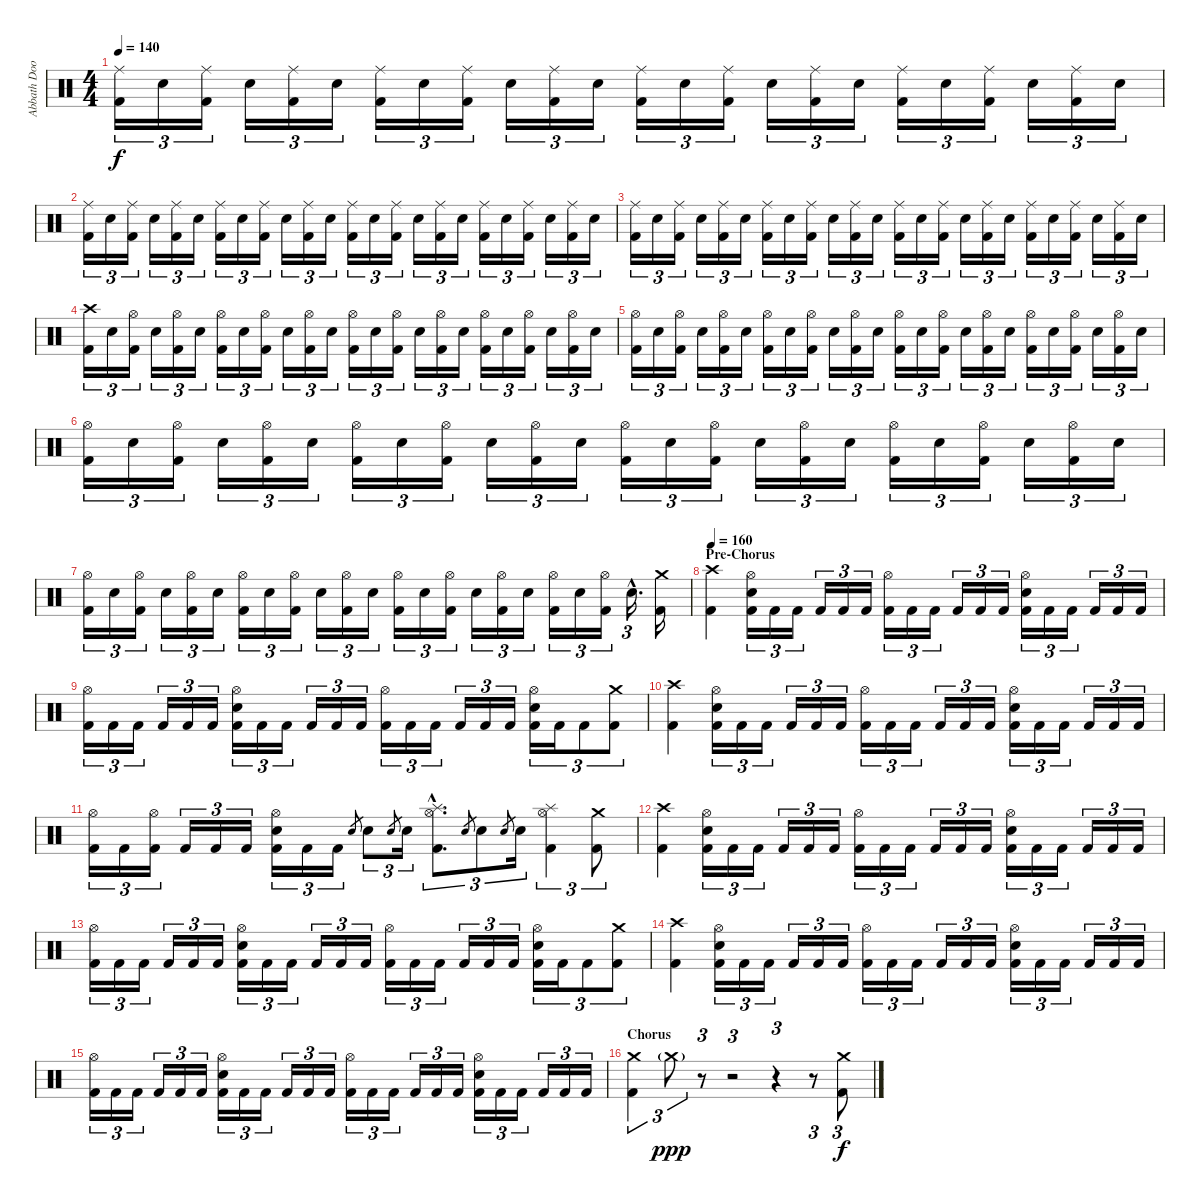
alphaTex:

\track ("Abbath Doom Occulta" "Abbath Doo") {instrument percussion}
\staff {score}
\articulation defaults
\ts (4 4)
\tempo 140
\clef neutral
\ks c
("Ride (middle)" "Kick (hit) 2").16{tu (3 2) dy f} "Electric Snare (hit)".16{tu (3 2)} ("Ride (middle)" "Kick (hit) 2").16{tu (3 2)} "Electric Snare (hit)".16{tu (3 2)} ("Ride (middle)" "Kick (hit) 2").16{tu (3 2)} "Electric Snare (hit)".16{tu (3 2)} ("Ride (middle)" "Kick (hit) 2").16{tu (3 2)} "Electric Snare (hit)".16{tu (3 2)} ("Ride (middle)" "Kick (hit) 2").16{tu (3 2)} "Electric Snare (hit)".16{tu (3 2)} ("Ride (middle)" "Kick (hit) 2").16{tu (3 2)} "Electric Snare (hit)".16{tu (3 2)} ("Ride (middle)" "Kick (hit) 2").16{tu (3 2)} "Electric Snare (hit)".16{tu (3 2)} ("Ride (middle)" "Kick (hit) 2").16{tu (3 2)} "Electric Snare (hit)".16{tu (3 2)} ("Ride (middle)" "Kick (hit) 2").16{tu (3 2)} "Electric Snare (hit)".16{tu (3 2)} ("Ride (middle)" "Kick (hit) 2").16{tu (3 2)} "Electric Snare (hit)".16{tu (3 2)} ("Ride (middle)" "Kick (hit) 2").16{tu (3 2)} "Electric Snare (hit)".16{tu (3 2)} ("Ride (middle)" "Kick (hit) 2").16{tu (3 2)} "Electric Snare (hit)".16{tu (3 2)} |
("Ride (middle)" "Kick (hit) 2").16{tu (3 2)} "Electric Snare (hit)".16{tu (3 2)} ("Ride (middle)" "Kick (hit) 2").16{tu (3 2)} "Electric Snare (hit)".16{tu (3 2)} ("Ride (middle)" "Kick (hit) 2").16{tu (3 2)} "Electric Snare (hit)".16{tu (3 2)} ("Ride (middle)" "Kick (hit) 2").16{tu (3 2)} "Electric Snare (hit)".16{tu (3 2)} ("Ride (middle)" "Kick (hit) 2").16{tu (3 2)} "Electric Snare (hit)".16{tu (3 2)} ("Ride (middle)" "Kick (hit) 2").16{tu (3 2)} "Electric Snare (hit)".16{tu (3 2)} ("Ride (middle)" "Kick (hit) 2").16{tu (3 2)} "Electric Snare (hit)".16{tu (3 2)} ("Ride (middle)" "Kick (hit) 2").16{tu (3 2)} "Electric Snare (hit)".16{tu (3 2)} ("Ride (middle)" "Kick (hit) 2").16{tu (3 2)} "Electric Snare (hit)".16{tu (3 2)} ("Ride (middle)" "Kick (hit) 2").16{tu (3 2)} "Electric Snare (hit)".16{tu (3 2)} ("Ride (middle)" "Kick (hit) 2").16{tu (3 2)} "Electric Snare (hit)".16{tu (3 2)} ("Ride (middle)" "Kick (hit) 2").16{tu (3 2)} "Electric Snare (hit)".16{tu (3 2)} |
("Ride (middle)" "Kick (hit) 2").16{tu (3 2)} "Electric Snare (hit)".16{tu (3 2)} ("Ride (middle)" "Kick (hit) 2").16{tu (3 2)} "Electric Snare (hit)".16{tu (3 2)} ("Ride (middle)" "Kick (hit) 2").16{tu (3 2)} "Electric Snare (hit)".16{tu (3 2)} ("Ride (middle)" "Kick (hit) 2").16{tu (3 2)} "Electric Snare (hit)".16{tu (3 2)} ("Ride (middle)" "Kick (hit) 2").16{tu (3 2)} "Electric Snare (hit)".16{tu (3 2)} ("Ride (middle)" "Kick (hit) 2").16{tu (3 2)} "Electric Snare (hit)".16{tu (3 2)} ("Ride (middle)" "Kick (hit) 2").16{tu (3 2)} "Electric Snare (hit)".16{tu (3 2)} ("Ride (middle)" "Kick (hit) 2").16{tu (3 2)} "Electric Snare (hit)".16{tu (3 2)} ("Ride (middle)" "Kick (hit) 2").16{tu (3 2)} "Electric Snare (hit)".16{tu (3 2)} ("Ride (middle)" "Kick (hit) 2").16{tu (3 2)} "Electric Snare (hit)".16{tu (3 2)} ("Ride (middle)" "Kick (hit) 2").16{tu (3 2)} "Electric Snare (hit)".16{tu (3 2)} ("Ride (middle)" "Kick (hit) 2").16{tu (3 2)} "Electric Snare (hit)".16{tu (3 2)} |
("Crash high (hit)" "Kick (hit) 2").16{tu (3 2)} "Electric Snare (hit)".16{tu (3 2)} ("Hi-Hat (open)" "Kick (hit) 2").16{tu (3 2)} "Electric Snare (hit)".16{tu (3 2)} ("Hi-Hat (open)" "Kick (hit) 2").16{tu (3 2)} "Electric Snare (hit)".16{tu (3 2)} ("Hi-Hat (open)" "Kick (hit) 2").16{tu (3 2)} "Electric Snare (hit)".16{tu (3 2)} ("Hi-Hat (open)" "Kick (hit) 2").16{tu (3 2)} "Electric Snare (hit)".16{tu (3 2)} ("Hi-Hat (open)" "Kick (hit) 2").16{tu (3 2)} "Electric Snare (hit)".16{tu (3 2)} ("Hi-Hat (open)" "Kick (hit) 2").16{tu (3 2)} "Electric Snare (hit)".16{tu (3 2)} ("Hi-Hat (open)" "Kick (hit) 2").16{tu (3 2)} "Electric Snare (hit)".16{tu (3 2)} ("Hi-Hat (open)" "Kick (hit) 2").16{tu (3 2)} "Electric Snare (hit)".16{tu (3 2)} ("Hi-Hat (open)" "Kick (hit) 2").16{tu (3 2)} "Electric Snare (hit)".16{tu (3 2)} ("Hi-Hat (open)" "Kick (hit) 2").16{tu (3 2)} "Electric Snare (hit)".16{tu (3 2)} ("Hi-Hat (open)" "Kick (hit) 2").16{tu (3 2)} "Electric Snare (hit)".16{tu (3 2)} |
("Hi-Hat (open)" "Kick (hit) 2").16{tu (3 2)} "Electric Snare (hit)".16{tu (3 2)} ("Hi-Hat (open)" "Kick (hit) 2").16{tu (3 2)} "Electric Snare (hit)".16{tu (3 2)} ("Hi-Hat (open)" "Kick (hit) 2").16{tu (3 2)} "Electric Snare (hit)".16{tu (3 2)} ("Hi-Hat (open)" "Kick (hit) 2").16{tu (3 2)} "Electric Snare (hit)".16{tu (3 2)} ("Hi-Hat (open)" "Kick (hit) 2").16{tu (3 2)} "Electric Snare (hit)".16{tu (3 2)} ("Hi-Hat (open)" "Kick (hit) 2").16{tu (3 2)} "Electric Snare (hit)".16{tu (3 2)} ("Hi-Hat (open)" "Kick (hit) 2").16{tu (3 2)} "Electric Snare (hit)".16{tu (3 2)} ("Hi-Hat (open)" "Kick (hit) 2").16{tu (3 2)} "Electric Snare (hit)".16{tu (3 2)} ("Hi-Hat (open)" "Kick (hit) 2").16{tu (3 2)} "Electric Snare (hit)".16{tu (3 2)} ("Hi-Hat (open)" "Kick (hit) 2").16{tu (3 2)} "Electric Snare (hit)".16{tu (3 2)} ("Hi-Hat (open)" "Kick (hit) 2").16{tu (3 2)} "Electric Snare (hit)".16{tu (3 2)} ("Hi-Hat (open)" "Kick (hit) 2").16{tu (3 2)} "Electric Snare (hit)".16{tu (3 2)} |
("Hi-Hat (open)" "Kick (hit) 2").16{tu (3 2)} "Electric Snare (hit)".16{tu (3 2)} ("Hi-Hat (open)" "Kick (hit) 2").16{tu (3 2)} "Electric Snare (hit)".16{tu (3 2)} ("Hi-Hat (open)" "Kick (hit) 2").16{tu (3 2)} "Electric Snare (hit)".16{tu (3 2)} ("Hi-Hat (open)" "Kick (hit) 2").16{tu (3 2)} "Electric Snare (hit)".16{tu (3 2)} ("Hi-Hat (open)" "Kick (hit) 2").16{tu (3 2)} "Electric Snare (hit)".16{tu (3 2)} ("Hi-Hat (open)" "Kick (hit) 2").16{tu (3 2)} "Electric Snare (hit)".16{tu (3 2)} ("Hi-Hat (open)" "Kick (hit) 2").16{tu (3 2)} "Electric Snare (hit)".16{tu (3 2)} ("Hi-Hat (open)" "Kick (hit) 2").16{tu (3 2)} "Electric Snare (hit)".16{tu (3 2)} ("Hi-Hat (open)" "Kick (hit) 2").16{tu (3 2)} "Electric Snare (hit)".16{tu (3 2)} ("Hi-Hat (open)" "Kick (hit) 2").16{tu (3 2)} "Electric Snare (hit)".16{tu (3 2)} ("Hi-Hat (open)" "Kick (hit) 2").16{tu (3 2)} "Electric Snare (hit)".16{tu (3 2)} ("Hi-Hat (open)" "Kick (hit) 2").16{tu (3 2)} "Electric Snare (hit)".16{tu (3 2)} |
("Hi-Hat (open)" "Kick (hit) 2").16{tu (3 2)} "Electric Snare (hit)".16{tu (3 2)} ("Hi-Hat (open)" "Kick (hit) 2").16{tu (3 2)} "Electric Snare (hit)".16{tu (3 2)} ("Hi-Hat (open)" "Kick (hit) 2").16{tu (3 2)} "Electric Snare (hit)".16{tu (3 2)} ("Hi-Hat (open)" "Kick (hit) 2").16{tu (3 2)} "Electric Snare (hit)".16{tu (3 2)} ("Hi-Hat (open)" "Kick (hit) 2").16{tu (3 2)} "Electric Snare (hit)".16{tu (3 2)} ("Hi-Hat (open)" "Kick (hit) 2").16{tu (3 2)} "Electric Snare (hit)".16{tu (3 2)} ("Hi-Hat (open)" "Kick (hit) 2").16{tu (3 2)} "Electric Snare (hit)".16{tu (3 2)} ("Hi-Hat (open)" "Kick (hit) 2").16{tu (3 2)} "Electric Snare (hit)".16{tu (3 2)} ("Hi-Hat (open)" "Kick (hit) 2").16{tu (3 2)} "Electric Snare (hit)".16{tu (3 2)} ("Hi-Hat (open)" "Kick (hit) 2").16{tu (3 2)} "Electric Snare (hit)".16{tu (3 2)} ("Hi-Hat (open)" "Kick (hit) 2").16{tu (3 2)} "Electric Snare (hit)"{hac}.16{d tu (3 2)} ("Crash medium (hit)" "Kick (hit) 2").16 |
\section ("" "Pre-Chorus")
\tempo 160
("Crash high (hit)" "Kick (hit) 2").4 ("Hi-Hat (open)" "Electric Snare (hit)" "Kick (hit) 2").16{tu (3 2)} "Kick (hit) 2".16{tu (3 2)} "Kick (hit) 2".16{tu (3 2)} "Kick (hit) 2".16{tu (3 2)} "Kick (hit) 2".16{tu (3 2)} "Kick (hit) 2".16{tu (3 2)} ("Hi-Hat (open)" "Kick (hit) 2").16{tu (3 2)} "Kick (hit) 2".16{tu (3 2)} "Kick (hit) 2".16{tu (3 2)} "Kick (hit) 2".16{tu (3 2)} "Kick (hit) 2".16{tu (3 2)} "Kick (hit) 2".16{tu (3 2)} ("Hi-Hat (open)" "Electric Snare (hit)" "Kick (hit) 2").16{tu (3 2)} "Kick (hit) 2".16{tu (3 2)} "Kick (hit) 2".16{tu (3 2)} "Kick (hit) 2".16{tu (3 2)} "Kick (hit) 2".16{tu (3 2)} "Kick (hit) 2".16{tu (3 2)} |
("Hi-Hat (open)" "Kick (hit) 2").16{tu (3 2)} "Kick (hit) 2".16{tu (3 2)} "Kick (hit) 2".16{tu (3 2)} "Kick (hit) 2".16{tu (3 2)} "Kick (hit) 2".16{tu (3 2)} "Kick (hit) 2".16{tu (3 2)} ("Hi-Hat (open)" "Electric Snare (hit)" "Kick (hit) 2").16{tu (3 2)} "Kick (hit) 2".16{tu (3 2)} "Kick (hit) 2".16{tu (3 2)} "Kick (hit) 2".16{tu (3 2)} "Kick (hit) 2".16{tu (3 2)} "Kick (hit) 2".16{tu (3 2)} ("Hi-Hat (open)" "Kick (hit) 2").16{tu (3 2)} "Kick (hit) 2".16{tu (3 2)} "Kick (hit) 2".16{tu (3 2)} "Kick (hit) 2".16{tu (3 2)} "Kick (hit) 2".16{tu (3 2)} "Kick (hit) 2".16{tu (3 2)} ("Hi-Hat (open)" "Electric Snare (hit)" "Kick (hit) 2").16{tu (3 2)} "Kick (hit) 2".16{tu (3 2)} "Kick (hit) 2".8{tu (3 2)} ("Crash medium (hit)" "Kick (hit) 2").8{tu (3 2)} |
("Crash high (hit)" "Kick (hit) 2").4 ("Hi-Hat (open)" "Electric Snare (hit)" "Kick (hit) 2").16{tu (3 2)} "Kick (hit) 2".16{tu (3 2)} "Kick (hit) 2".16{tu (3 2)} "Kick (hit) 2".16{tu (3 2)} "Kick (hit) 2".16{tu (3 2)} "Kick (hit) 2".16{tu (3 2)} ("Hi-Hat (open)" "Kick (hit) 2").16{tu (3 2)} "Kick (hit) 2".16{tu (3 2)} "Kick (hit) 2".16{tu (3 2)} "Kick (hit) 2".16{tu (3 2)} "Kick (hit) 2".16{tu (3 2)} "Kick (hit) 2".16{tu (3 2)} ("Hi-Hat (open)" "Electric Snare (hit)" "Kick (hit) 2").16{tu (3 2)} "Kick (hit) 2".16{tu (3 2)} "Kick (hit) 2".16{tu (3 2)} "Kick (hit) 2".16{tu (3 2)} "Kick (hit) 2".16{tu (3 2)} "Kick (hit) 2".16{tu (3 2)} |
("Hi-Hat (open)" "Kick (hit) 2").16{tu (3 2)} "Kick (hit) 2".16{tu (3 2)} ("Hi-Hat (open)" "Kick (hit) 2").16{tu (3 2)} "Kick (hit) 2".16{tu (3 2)} "Kick (hit) 2".16{tu (3 2)} "Kick (hit) 2".16{tu (3 2)} ("Hi-Hat (open)" "Electric Snare (hit)" "Kick (hit) 2").16{tu (3 2)} "Kick (hit) 2".16{tu (3 2)} "Kick (hit) 2".16{tu (3 2)} "Electric Snare (hit)".8{gr} "Electric Snare (hit)".8{tu (3 2)} "Electric Snare (hit)".8{gr} "Electric Snare (hit)".16{tu (3 2)} ("Splash (hit)"{hac} "Hi-Hat (open)"{hac} "Kick (hit) 2"{hac}).8{d tu (3 2)} "Electric Snare (hit)".8{gr} "Electric Snare (hit)".8{tu (3 2)} "Electric Snare (hit)".8{gr} "Electric Snare (hit)".16{tu (3 2)} ("Splash (hit)" "Hi-Hat (open)" "Kick (hit) 2").4{tu (3 2)} ("Crash medium (hit)" "Kick (hit) 2").8{tu (3 2)} |
("Crash high (hit)" "Kick (hit) 2").4 ("Hi-Hat (open)" "Electric Snare (hit)" "Kick (hit) 2").16{tu (3 2)} "Kick (hit) 2".16{tu (3 2)} "Kick (hit) 2".16{tu (3 2)} "Kick (hit) 2".16{tu (3 2)} "Kick (hit) 2".16{tu (3 2)} "Kick (hit) 2".16{tu (3 2)} ("Hi-Hat (open)" "Kick (hit) 2").16{tu (3 2)} "Kick (hit) 2".16{tu (3 2)} "Kick (hit) 2".16{tu (3 2)} "Kick (hit) 2".16{tu (3 2)} "Kick (hit) 2".16{tu (3 2)} "Kick (hit) 2".16{tu (3 2)} ("Hi-Hat (open)" "Electric Snare (hit)" "Kick (hit) 2").16{tu (3 2)} "Kick (hit) 2".16{tu (3 2)} "Kick (hit) 2".16{tu (3 2)} "Kick (hit) 2".16{tu (3 2)} "Kick (hit) 2".16{tu (3 2)} "Kick (hit) 2".16{tu (3 2)} |
("Hi-Hat (open)" "Kick (hit) 2").16{tu (3 2)} "Kick (hit) 2".16{tu (3 2)} "Kick (hit) 2".16{tu (3 2)} "Kick (hit) 2".16{tu (3 2)} "Kick (hit) 2".16{tu (3 2)} "Kick (hit) 2".16{tu (3 2)} ("Hi-Hat (open)" "Electric Snare (hit)" "Kick (hit) 2").16{tu (3 2)} "Kick (hit) 2".16{tu (3 2)} "Kick (hit) 2".16{tu (3 2)} "Kick (hit) 2".16{tu (3 2)} "Kick (hit) 2".16{tu (3 2)} "Kick (hit) 2".16{tu (3 2)} ("Hi-Hat (open)" "Kick (hit) 2").16{tu (3 2)} "Kick (hit) 2".16{tu (3 2)} "Kick (hit) 2".16{tu (3 2)} "Kick (hit) 2".16{tu (3 2)} "Kick (hit) 2".16{tu (3 2)} "Kick (hit) 2".16{tu (3 2)} ("Hi-Hat (open)" "Electric Snare (hit)" "Kick (hit) 2").16{tu (3 2)} "Kick (hit) 2".16{tu (3 2)} "Kick (hit) 2".8{tu (3 2)} ("Crash medium (hit)" "Kick (hit) 2").8{tu (3 2)} |
("Crash high (hit)" "Kick (hit) 2").4 ("Hi-Hat (open)" "Electric Snare (hit)" "Kick (hit) 2").16{tu (3 2)} "Kick (hit) 2".16{tu (3 2)} "Kick (hit) 2".16{tu (3 2)} "Kick (hit) 2".16{tu (3 2)} "Kick (hit) 2".16{tu (3 2)} "Kick (hit) 2".16{tu (3 2)} ("Hi-Hat (open)" "Kick (hit) 2").16{tu (3 2)} "Kick (hit) 2".16{tu (3 2)} "Kick (hit) 2".16{tu (3 2)} "Kick (hit) 2".16{tu (3 2)} "Kick (hit) 2".16{tu (3 2)} "Kick (hit) 2".16{tu (3 2)} ("Hi-Hat (open)" "Electric Snare (hit)" "Kick (hit) 2").16{tu (3 2)} "Kick (hit) 2".16{tu (3 2)} "Kick (hit) 2".16{tu (3 2)} "Kick (hit) 2".16{tu (3 2)} "Kick (hit) 2".16{tu (3 2)} "Kick (hit) 2".16{tu (3 2)} |
("Hi-Hat (open)" "Kick (hit) 2").16{tu (3 2)} "Kick (hit) 2".16{tu (3 2)} "Kick (hit) 2".16{tu (3 2)} "Kick (hit) 2".16{tu (3 2)} "Kick (hit) 2".16{tu (3 2)} "Kick (hit) 2".16{tu (3 2)} ("Hi-Hat (open)" "Electric Snare (hit)" "Kick (hit) 2").16{tu (3 2)} "Kick (hit) 2".16{tu (3 2)} "Kick (hit) 2".16{tu (3 2)} "Kick (hit) 2".16{tu (3 2)} "Kick (hit) 2".16{tu (3 2)} "Kick (hit) 2".16{tu (3 2)} ("Hi-Hat (open)" "Kick (hit) 2").16{tu (3 2)} "Kick (hit) 2".16{tu (3 2)} "Kick (hit) 2".16{tu (3 2)} "Kick (hit) 2".16{tu (3 2)} "Kick (hit) 2".16{tu (3 2)} "Kick (hit) 2".16{tu (3 2)} ("Hi-Hat (open)" "Electric Snare (hit)" "Kick (hit) 2").16{tu (3 2)} "Kick (hit) 2".16{tu (3 2)} "Kick (hit) 2".16{tu (3 2)} "Kick (hit) 2".16{tu (3 2)} "Kick (hit) 2".16{tu (3 2)} "Kick (hit) 2".16{tu (3 2)} |
\section ("" "Chorus")
("Crash medium (hit)" "Kick (hit) 2").4{tu (3 2)} "Crash medium (hit)"{g}.8{tu (3 2) dy ppp} r.8{tu (3 2)} r.2{tu (3 2)} r.4{tu (3 2)} r.8{tu (3 2)} ("Crash medium (hit)" "Kick (hit) 2").8{tu (3 2) dy f}
